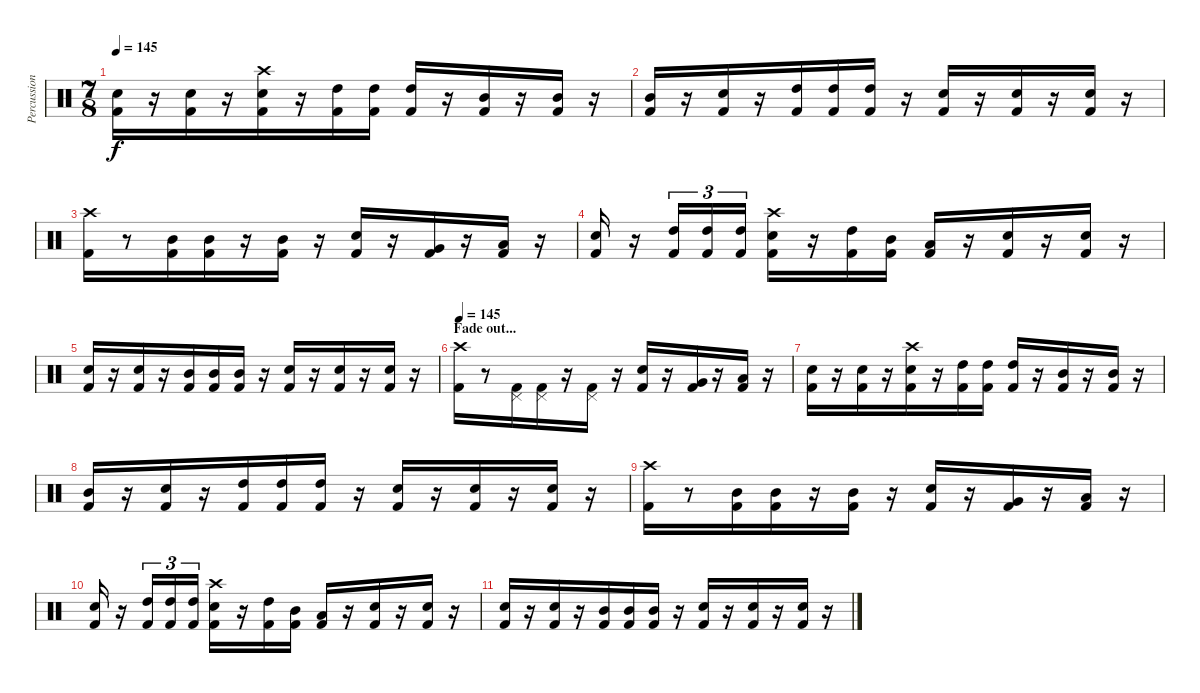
\track ("Percussion" "Percussion") {instrument percussion}
\staff {score}
\articulation defaults
\ts (7 8)
\tempo 145
\clef neutral
\ks c
("Snare (hit) 2" "Kick (hit) 2").16{dy f} r.16 ("Snare (hit) 2" "Kick (hit) 2").16 r.16 ("Crash high (hit)" "Snare (hit) 2" "Kick (hit) 2").16 r.16 ("High Tom (hit)" "Kick (hit) 2").16 ("High Tom (hit)" "Kick (hit) 2").16 ("High Tom (hit)" "Kick (hit) 2").16 r.16 ("Mid Tom (hit)" "Kick (hit) 2").16 r.16 ("Mid Tom (hit)" "Kick (hit) 2").16 r.16 |
("Mid Tom (hit)" "Kick (hit) 2").16 r.16 ("Snare (hit) 2" "Kick (hit) 2").16 r.16 ("High Tom (hit)" "Kick (hit) 2").16 ("High Tom (hit)" "Kick (hit) 2").16 ("High Tom (hit)" "Kick (hit) 2").16 r.16 ("Snare (hit) 2" "Kick (hit) 2").16 r.16 ("Snare (hit) 2" "Kick (hit) 2").16 r.16 ("Snare (hit) 2" "Kick (hit) 2").16 r.16 |
("Crash high (hit)" "Kick (hit) 2").16 r.8 ("Mid Tom (hit)" "Kick (hit) 2").16 ("Mid Tom (hit)" "Kick (hit) 2").16 r.16 ("Mid Tom (hit)" "Kick (hit) 2").16 r.16 ("Snare (hit) 2" "Kick (hit) 2").16 r.16 ("Very Low Tom (hit)" "Kick (hit) 2").16 r.16 ("Low Tom (hit)" "Kick (hit) 2").16 r.16 |
("Electric Snare (hit)" "Kick (hit) 2").16 r.16 ("High Tom (hit)" "Kick (hit) 2").16{tu (3 2)} ("High Tom (hit)" "Kick (hit) 2").16{tu (3 2)} ("High Tom (hit)" "Kick (hit) 2").16{tu (3 2)} ("Crash high (hit)" "Snare (hit) 2" "Kick (hit) 2").16 r.16 ("High Tom (hit)" "Kick (hit) 2").16 ("Mid Tom (hit)" "Kick (hit) 2").16 ("Low Tom (hit)" "Kick (hit) 2").16 r.16 ("Snare (hit) 2" "Kick (hit) 2").16 r.16 ("Snare (hit) 2" "Kick (hit) 2").16 r.16 |
("Snare (hit) 2" "Kick (hit) 2").16 r.16 ("Snare (hit) 2" "Kick (hit) 2").16 r.16 ("Mid Tom (hit)" "Kick (hit) 2").16 ("Mid Tom (hit)" "Kick (hit) 2").16 ("Mid Tom (hit)" "Kick (hit) 2").16 r.16 ("Snare (hit) 2" "Kick (hit) 2").16 r.16 ("Snare (hit) 2" "Kick (hit) 2").16 r.16 ("Snare (hit) 2" "Kick (hit) 2").16 r.16 |
\section ("" "Fade out...")
\tempo 145
("Crash high (hit)" "Kick (hit) 2").16 r.8 ("Pedal Hi-Hat (hit)" "Kick (hit) 2").16 ("Pedal Hi-Hat (hit)" "Kick (hit) 2").16 r.16 ("Pedal Hi-Hat (hit)" "Kick (hit) 2").16 r.16 ("Snare (hit) 2" "Kick (hit) 2").16 r.16 ("Very Low Tom (hit)" "Kick (hit) 2").16 r.16 ("Low Tom (hit)" "Kick (hit) 2").16 r.16 |
("Snare (hit) 2" "Kick (hit) 2").16 r.16 ("Snare (hit) 2" "Kick (hit) 2").16 r.16 ("Crash high (hit)" "Snare (hit) 2" "Kick (hit) 2").16 r.16 ("High Tom (hit)" "Kick (hit) 2").16 ("High Tom (hit)" "Kick (hit) 2").16 ("High Tom (hit)" "Kick (hit) 2").16 r.16 ("Mid Tom (hit)" "Kick (hit) 2").16 r.16 ("Mid Tom (hit)" "Kick (hit) 2").16 r.16 |
("Mid Tom (hit)" "Kick (hit) 2").16 r.16 ("Snare (hit) 2" "Kick (hit) 2").16 r.16 ("High Tom (hit)" "Kick (hit) 2").16 ("High Tom (hit)" "Kick (hit) 2").16 ("High Tom (hit)" "Kick (hit) 2").16 r.16 ("Snare (hit) 2" "Kick (hit) 2").16 r.16 ("Snare (hit) 2" "Kick (hit) 2").16 r.16 ("Snare (hit) 2" "Kick (hit) 2").16 r.16 |
("Crash high (hit)" "Kick (hit) 2").16 r.8 ("Mid Tom (hit)" "Kick (hit) 2").16 ("Mid Tom (hit)" "Kick (hit) 2").16 r.16 ("Mid Tom (hit)" "Kick (hit) 2").16 r.16 ("Snare (hit) 2" "Kick (hit) 2").16 r.16 ("Very Low Tom (hit)" "Kick (hit) 2").16 r.16 ("Low Tom (hit)" "Kick (hit) 2").16 r.16 |
("Electric Snare (hit)" "Kick (hit) 2").16 r.16 ("High Tom (hit)" "Kick (hit) 2").16{tu (3 2)} ("High Tom (hit)" "Kick (hit) 2").16{tu (3 2)} ("High Tom (hit)" "Kick (hit) 2").16{tu (3 2)} ("Crash high (hit)" "Snare (hit) 2" "Kick (hit) 2").16 r.16 ("High Tom (hit)" "Kick (hit) 2").16 ("Mid Tom (hit)" "Kick (hit) 2").16 ("Low Tom (hit)" "Kick (hit) 2").16 r.16 ("Snare (hit) 2" "Kick (hit) 2").16 r.16 ("Snare (hit) 2" "Kick (hit) 2").16 r.16 |
("Snare (hit) 2" "Kick (hit) 2").16 r.16 ("Snare (hit) 2" "Kick (hit) 2").16 r.16 ("Mid Tom (hit)" "Kick (hit) 2").16 ("Mid Tom (hit)" "Kick (hit) 2").16 ("Mid Tom (hit)" "Kick (hit) 2").16 r.16 ("Snare (hit) 2" "Kick (hit) 2").16 r.16 ("Snare (hit) 2" "Kick (hit) 2").16 r.16 ("Snare (hit) 2" "Kick (hit) 2").16 r.16
